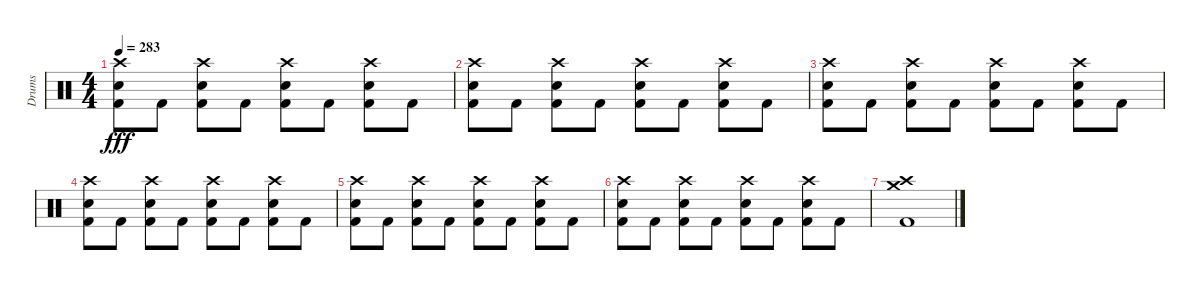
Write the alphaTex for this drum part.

\track ("Drums" "Drums") {instrument percussion}
\staff {score}
\articulation defaults
\ts (4 4)
\tempo 283
\clef neutral
\ks c
("Crash high (hit)" "Electric Snare (hit)" "Kick (hit) 2").8{dy fff} "Kick (hit) 2".8 ("Crash high (hit)" "Electric Snare (hit)" "Kick (hit) 2").8 "Kick (hit) 2".8 ("Crash high (hit)" "Electric Snare (hit)" "Kick (hit) 2").8 "Kick (hit) 2".8 ("Crash high (hit)" "Electric Snare (hit)" "Kick (hit) 2").8 "Kick (hit) 2".8 |
("Crash high (hit)" "Electric Snare (hit)" "Kick (hit) 2").8 "Kick (hit) 2".8 ("Crash high (hit)" "Electric Snare (hit)" "Kick (hit) 2").8 "Kick (hit) 2".8 ("Crash high (hit)" "Electric Snare (hit)" "Kick (hit) 2").8 "Kick (hit) 2".8 ("Crash high (hit)" "Electric Snare (hit)" "Kick (hit) 2").8 "Kick (hit) 2".8 |
("Crash high (hit)" "Electric Snare (hit)" "Kick (hit) 2").8 "Kick (hit) 2".8 ("Crash high (hit)" "Electric Snare (hit)" "Kick (hit) 2").8 "Kick (hit) 2".8 ("Crash high (hit)" "Electric Snare (hit)" "Kick (hit) 2").8 "Kick (hit) 2".8 ("Crash high (hit)" "Electric Snare (hit)" "Kick (hit) 2").8 "Kick (hit) 2".8 |
("Crash high (hit)" "Electric Snare (hit)" "Kick (hit) 2").8 "Kick (hit) 2".8 ("Crash high (hit)" "Electric Snare (hit)" "Kick (hit) 2").8 "Kick (hit) 2".8 ("Crash high (hit)" "Electric Snare (hit)" "Kick (hit) 2").8 "Kick (hit) 2".8 ("Crash high (hit)" "Electric Snare (hit)" "Kick (hit) 2").8 "Kick (hit) 2".8 |
("Crash high (hit)" "Electric Snare (hit)" "Kick (hit) 2").8 "Kick (hit) 2".8 ("Crash high (hit)" "Electric Snare (hit)" "Kick (hit) 2").8 "Kick (hit) 2".8 ("Crash high (hit)" "Electric Snare (hit)" "Kick (hit) 2").8 "Kick (hit) 2".8 ("Crash high (hit)" "Electric Snare (hit)" "Kick (hit) 2").8 "Kick (hit) 2".8 |
("Crash high (hit)" "Electric Snare (hit)" "Kick (hit) 2").8 "Kick (hit) 2".8 ("Crash high (hit)" "Electric Snare (hit)" "Kick (hit) 2").8 "Kick (hit) 2".8 ("Crash high (hit)" "Electric Snare (hit)" "Kick (hit) 2").8 "Kick (hit) 2".8 ("Crash high (hit)" "Electric Snare (hit)" "Kick (hit) 2").8 "Kick (hit) 2".8 |
("Crash high (hit)" "Crash medium (hit)" "Kick (hit) 2").1
